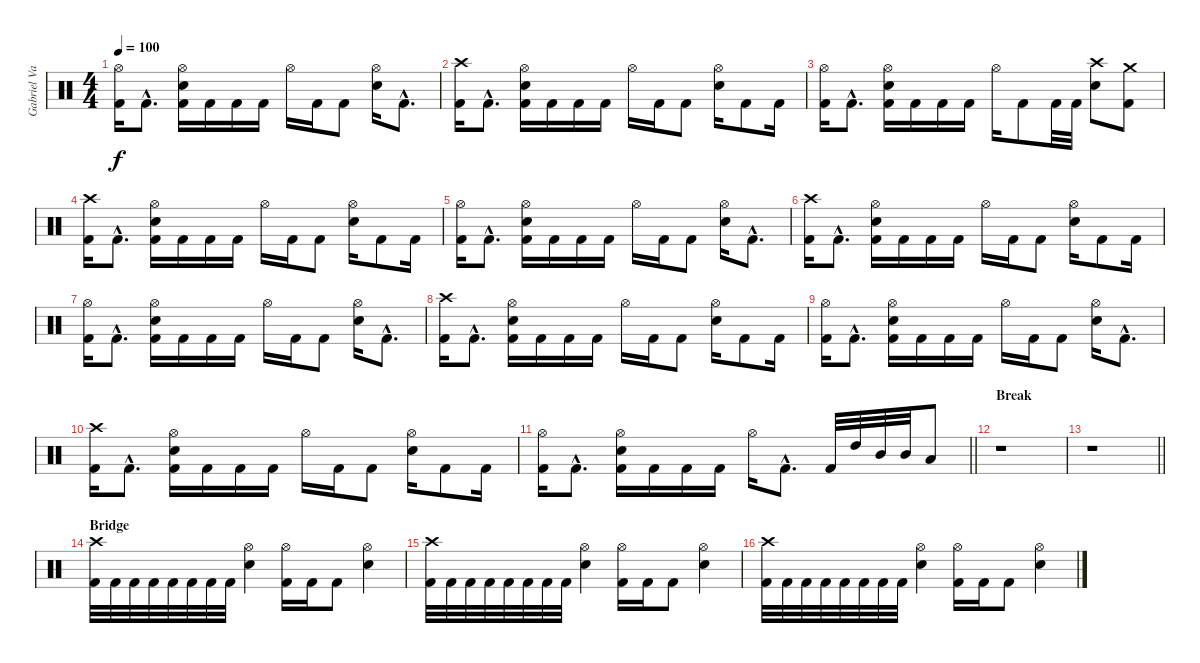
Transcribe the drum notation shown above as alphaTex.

\track ("Gabriel Valerio" "Gabriel Va") {instrument percussion}
\staff {score}
\articulation defaults
\ts (4 4)
\tempo 100
\clef neutral
\ks c
("Hi-Hat (open)" "Kick (hit) 2").16{dy f} "Kick (hit) 2"{hac}.8{d} ("Hi-Hat (open)" "Snare (hit) 2" "Kick (hit) 2").16 "Kick (hit) 2".16 "Kick (hit) 2".16 "Kick (hit) 2".16 "Hi-Hat (open)".16 "Kick (hit) 2".16 "Kick (hit) 2".8 ("Hi-Hat (open)" "Snare (hit) 2").16 "Kick (hit) 2"{hac}.8{d} |
("Crash high (hit)" "Kick (hit) 2").16 "Kick (hit) 2"{hac}.8{d} ("Hi-Hat (open)" "Snare (hit) 2" "Kick (hit) 2").16 "Kick (hit) 2".16 "Kick (hit) 2".16 "Kick (hit) 2".16 "Hi-Hat (open)".16 "Kick (hit) 2".16 "Kick (hit) 2".8 ("Hi-Hat (open)" "Snare (hit) 2").16 "Kick (hit) 2".8 "Kick (hit) 2".16 |
("Hi-Hat (open)" "Kick (hit) 2").16 "Kick (hit) 2"{hac}.8{d} ("Hi-Hat (open)" "Snare (hit) 2" "Kick (hit) 2").16 "Kick (hit) 2".16 "Kick (hit) 2".16 "Kick (hit) 2".16 "Hi-Hat (open)".16 "Kick (hit) 2".8 "Kick (hit) 2".32 "Kick (hit) 2".32 ("Crash high (hit)" "Snare (hit) 2").8 ("Crash medium (hit)" "Kick (hit) 2").8 |
("Crash high (hit)" "Kick (hit) 2").16 "Kick (hit) 2"{hac}.8{d} ("Hi-Hat (open)" "Snare (hit) 2" "Kick (hit) 2").16 "Kick (hit) 2".16 "Kick (hit) 2".16 "Kick (hit) 2".16 "Hi-Hat (open)".16 "Kick (hit) 2".16 "Kick (hit) 2".8 ("Hi-Hat (open)" "Snare (hit) 2").16 "Kick (hit) 2".8 "Kick (hit) 2".16 |
("Hi-Hat (open)" "Kick (hit) 2").16 "Kick (hit) 2"{hac}.8{d} ("Hi-Hat (open)" "Snare (hit) 2" "Kick (hit) 2").16 "Kick (hit) 2".16 "Kick (hit) 2".16 "Kick (hit) 2".16 "Hi-Hat (open)".16 "Kick (hit) 2".16 "Kick (hit) 2".8 ("Hi-Hat (open)" "Snare (hit) 2").16 "Kick (hit) 2"{hac}.8{d} |
("Crash high (hit)" "Kick (hit) 2").16 "Kick (hit) 2"{hac}.8{d} ("Hi-Hat (open)" "Snare (hit) 2" "Kick (hit) 2").16 "Kick (hit) 2".16 "Kick (hit) 2".16 "Kick (hit) 2".16 "Hi-Hat (open)".16 "Kick (hit) 2".16 "Kick (hit) 2".8 ("Hi-Hat (open)" "Snare (hit) 2").16 "Kick (hit) 2".8 "Kick (hit) 2".16 |
("Hi-Hat (open)" "Kick (hit) 2").16 "Kick (hit) 2"{hac}.8{d} ("Hi-Hat (open)" "Snare (hit) 2" "Kick (hit) 2").16 "Kick (hit) 2".16 "Kick (hit) 2".16 "Kick (hit) 2".16 "Hi-Hat (open)".16 "Kick (hit) 2".16 "Kick (hit) 2".8 ("Hi-Hat (open)" "Snare (hit) 2").16 "Kick (hit) 2"{hac}.8{d} |
("Crash high (hit)" "Kick (hit) 2").16 "Kick (hit) 2"{hac}.8{d} ("Hi-Hat (open)" "Snare (hit) 2" "Kick (hit) 2").16 "Kick (hit) 2".16 "Kick (hit) 2".16 "Kick (hit) 2".16 "Hi-Hat (open)".16 "Kick (hit) 2".16 "Kick (hit) 2".8 ("Hi-Hat (open)" "Snare (hit) 2").16 "Kick (hit) 2".8 "Kick (hit) 2".16 |
("Hi-Hat (open)" "Kick (hit) 2").16 "Kick (hit) 2"{hac}.8{d} ("Hi-Hat (open)" "Snare (hit) 2" "Kick (hit) 2").16 "Kick (hit) 2".16 "Kick (hit) 2".16 "Kick (hit) 2".16 "Hi-Hat (open)".16 "Kick (hit) 2".16 "Kick (hit) 2".8 ("Hi-Hat (open)" "Snare (hit) 2").16 "Kick (hit) 2"{hac}.8{d} |
("Crash high (hit)" "Kick (hit) 2").16 "Kick (hit) 2"{hac}.8{d} ("Hi-Hat (open)" "Snare (hit) 2" "Kick (hit) 2").16 "Kick (hit) 2".16 "Kick (hit) 2".16 "Kick (hit) 2".16 "Hi-Hat (open)".16 "Kick (hit) 2".16 "Kick (hit) 2".8 ("Hi-Hat (open)" "Snare (hit) 2").16 "Kick (hit) 2".8 "Kick (hit) 2".16 |
\barLineRight lightlight
("Hi-Hat (open)" "Kick (hit) 2").16 "Kick (hit) 2"{hac}.8{d} ("Hi-Hat (open)" "Snare (hit) 2" "Kick (hit) 2").16 "Kick (hit) 2".16 "Kick (hit) 2".16 "Kick (hit) 2".16 "Hi-Hat (open)".16 "Kick (hit) 2"{hac}.8{d} "Kick (hit) 2".32 "High Tom (hit)".32 "Mid Tom (hit)".32 "Mid Tom (hit)".32 "Low Tom (hit)".8 |
\section ("" "Break")
r.1 |
\barLineRight lightlight
r.1 |
\section ("" "Bridge")
("Crash high (hit)" "Kick (hit) 2").32 "Kick (hit) 2".32 "Kick (hit) 2".32 "Kick (hit) 2".32 "Kick (hit) 2".32 "Kick (hit) 2".32 "Kick (hit) 2".32 "Kick (hit) 2".32 ("Hi-Hat (open)" "Snare (hit) 2").4 ("Hi-Hat (open)" "Kick (hit) 2").16 "Kick (hit) 2".16 "Kick (hit) 2".8 ("Hi-Hat (open)" "Snare (hit) 2").4 |
("Crash high (hit)" "Kick (hit) 2").32 "Kick (hit) 2".32 "Kick (hit) 2".32 "Kick (hit) 2".32 "Kick (hit) 2".32 "Kick (hit) 2".32 "Kick (hit) 2".32 "Kick (hit) 2".32 ("Hi-Hat (open)" "Snare (hit) 2").4 ("Hi-Hat (open)" "Kick (hit) 2").16 "Kick (hit) 2".16 "Kick (hit) 2".8 ("Hi-Hat (open)" "Snare (hit) 2").4 |
("Crash high (hit)" "Kick (hit) 2").32 "Kick (hit) 2".32 "Kick (hit) 2".32 "Kick (hit) 2".32 "Kick (hit) 2".32 "Kick (hit) 2".32 "Kick (hit) 2".32 "Kick (hit) 2".32 ("Hi-Hat (open)" "Snare (hit) 2").4 ("Hi-Hat (open)" "Kick (hit) 2").16 "Kick (hit) 2".16 "Kick (hit) 2".8 ("Hi-Hat (open)" "Snare (hit) 2").4
